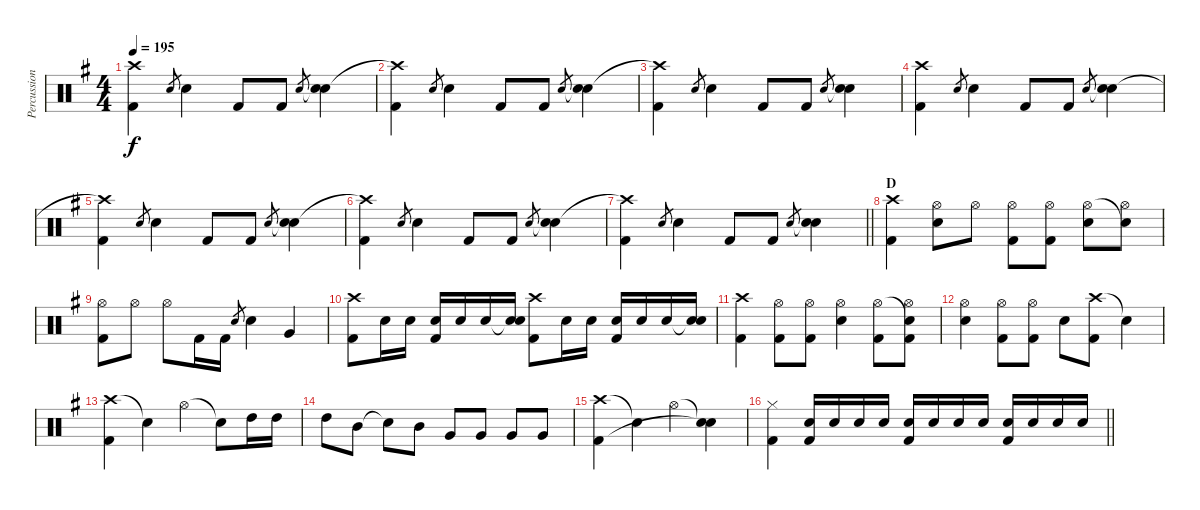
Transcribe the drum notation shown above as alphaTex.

\track ("Percussion" "Percussion") {instrument percussion}
\staff {score}
\articulation defaults
\ts (4 4)
\tempo 195
\clef neutral
\ks g
("Crash high (hit)"{t} "Kick (hit) 2").4{dy f} "Electric Snare (hit)".8{gr} "Electric Snare (hit)".4 "Kick (hit) 2".8 "Kick (hit) 2".8 "Electric Snare (hit)".8{gr} ("Snare (hit)"{t} "Electric Snare (hit)").4 |
("Crash high (hit)"{t} "Kick (hit) 2").4 "Electric Snare (hit)".8{gr} "Electric Snare (hit)".4 "Kick (hit) 2".8 "Kick (hit) 2".8 "Electric Snare (hit)".8{gr} ("Snare (hit)"{t} "Electric Snare (hit)").4 |
("Crash high (hit)"{t} "Kick (hit) 2").4 "Electric Snare (hit)".8{gr} "Electric Snare (hit)".4 "Kick (hit) 2".8 "Kick (hit) 2".8 "Electric Snare (hit)".8{gr} ("Snare (hit)"{t} "Electric Snare (hit)").4 |
("Crash high (hit)" "Kick (hit) 2").4 "Electric Snare (hit)".8{gr} "Electric Snare (hit)".4 "Kick (hit) 2".8 "Kick (hit) 2".8 "Electric Snare (hit)".8{gr} ("Snare (hit)"{t} "Electric Snare (hit)").4 |
("Crash high (hit)"{t} "Kick (hit) 2").4 "Electric Snare (hit)".8{gr} "Electric Snare (hit)".4 "Kick (hit) 2".8 "Kick (hit) 2".8 "Electric Snare (hit)".8{gr} ("Snare (hit)"{t} "Electric Snare (hit)").4 |
("Crash high (hit)"{t} "Kick (hit) 2").4 "Electric Snare (hit)".8{gr} "Electric Snare (hit)".4 "Kick (hit) 2".8 "Kick (hit) 2".8 "Electric Snare (hit)".8{gr} ("Snare (hit)"{t} "Electric Snare (hit)").4 |
\barLineRight lightlight
("Crash high (hit)"{t} "Kick (hit) 2").4 "Electric Snare (hit)".8{gr} "Electric Snare (hit)".4 "Kick (hit) 2".8 "Kick (hit) 2".8 "Electric Snare (hit)".8{gr} ("Snare (hit)"{t} "Electric Snare (hit)").4 |
\section ("" "D")
("Crash high (hit)" "Kick (hit) 2").4 ("Hi-Hat (open)" "Electric Snare (hit)").8 "Hi-Hat (open)".8 ("Hi-Hat (open)" "Kick (hit) 2").8 ("Hi-Hat (open)" "Kick (hit) 2").8 ("Hi-Hat (open)" "Electric Snare (hit)").8 ("Snare (hit)"{t} "Hi-Hat (open)").8 |
("Hi-Hat (open)" "Kick (hit) 2").8 "Hi-Hat (open)".8 "Hi-Hat (open)".8 "Kick (hit) 2".16 "Kick (hit) 2".16 "Electric Snare (hit)".8{gr} "Electric Snare (hit)".4 "Very Low Tom (hit)".4 |
("Crash high (hit)" "Kick (hit) 2").8 "Electric Snare (hit)".16 "Electric Snare (hit)".16 ("Electric Snare (hit)" "Kick (hit) 2").16 "Electric Snare (hit)".16 "Electric Snare (hit)".16 ("Snare (hit)"{t} "Electric Snare (hit)").16 ("Crash high (hit)" "Kick (hit) 2").8 "Electric Snare (hit)".16 "Electric Snare (hit)".16 ("Electric Snare (hit)" "Kick (hit) 2").16 "Electric Snare (hit)".16 "Electric Snare (hit)".16 ("Snare (hit)"{t} "Electric Snare (hit)").16 |
("Crash high (hit)" "Kick (hit) 2").4 ("Hi-Hat (open)" "Kick (hit) 2").8 ("Hi-Hat (open)" "Kick (hit) 2").8 ("Hi-Hat (open)" "Electric Snare (hit)").4 ("Hi-Hat (open)" "Kick (hit) 2").8 ("Snare (hit)"{t} "Hi-Hat (open)" "Kick (hit) 2").8 |
("Hi-Hat (open)" "Electric Snare (hit)").4 ("Hi-Hat (open)" "Kick (hit) 2").8 ("Hi-Hat (open)" "Kick (hit) 2").8 "Electric Snare (hit)".8 ("Crash high (hit)" "Kick (hit) 2").8 "Snare (hit)"{t}.4 |
("Crash high (hit)" "Kick (hit) 2").4 "Snare (hit)"{t}.4 "Hi-Hat (open)".4 "Snare (hit)"{t}.8 "High Tom (hit)".16 "High Tom (hit)".16 |
"High Tom (hit)".8 "Mid Tom (hit)".8 "Snare (hit)"{t}.8 "Mid Tom (hit)".8 "Very Low Tom (hit)".8 "Very Low Tom (hit)".8 "Very Low Tom (hit)".8 "Very Low Tom (hit)".8 |
("Crash high (hit)" "Kick (hit) 2").4 "Snare (hit)"{t}.4 "Hi-Hat (open)".4 ("Snare (hit)"{t} "Snare (hit)"{t}).4 |
\barLineRight lightlight
("Hi-Hat (closed)" "Kick (hit) 2").4 ("Electric Snare (hit)" "Kick (hit) 2").16 "Electric Snare (hit)".16 "Electric Snare (hit)".16 "Electric Snare (hit)".16 ("Electric Snare (hit)" "Kick (hit) 2").16 "Electric Snare (hit)".16 "Electric Snare (hit)".16 "Electric Snare (hit)".16 ("Electric Snare (hit)" "Kick (hit) 2").16 "Electric Snare (hit)".16 "Electric Snare (hit)".16 "Electric Snare (hit)".16
